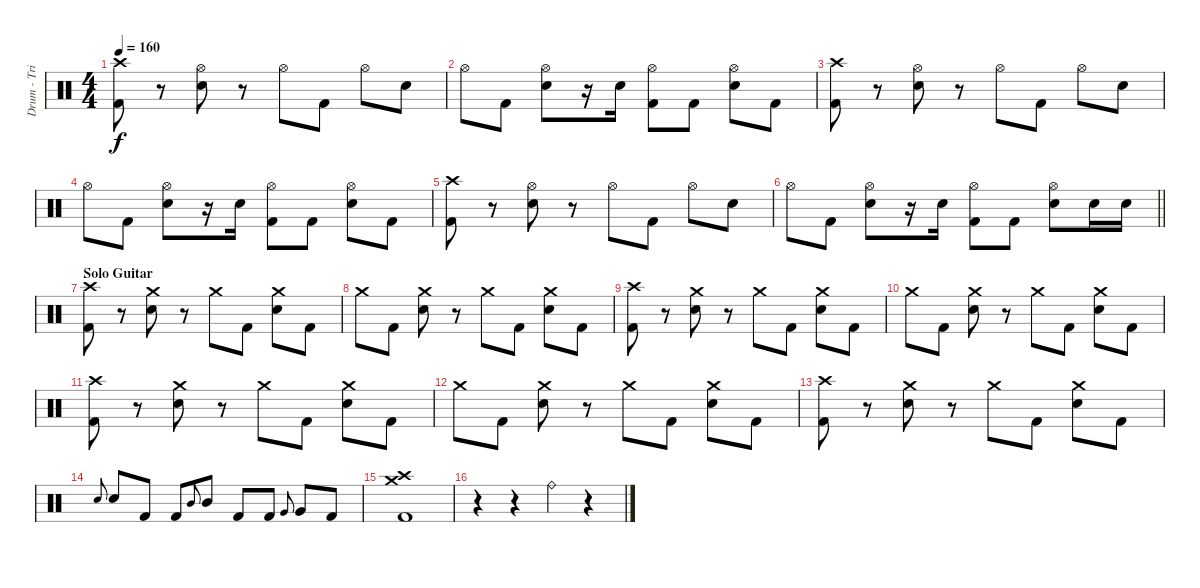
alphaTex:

\track ("Drum - Trian" "Drum - Tri") {instrument percussion}
\staff {score}
\articulation defaults
\ts (4 4)
\tempo 160
\clef neutral
\ks c
("Crash high (hit)" "Kick (hit) 2").8{dy f} r.8 ("Hi-Hat (open)" "Electric Snare (hit)").8 r.8 "Hi-Hat (open)".8 "Kick (hit) 2".8 "Hi-Hat (open)".8 "Electric Snare (hit)".8 |
"Hi-Hat (open)".8 "Kick (hit) 2".8 ("Hi-Hat (open)" "Electric Snare (hit)").8 r.16 "Electric Snare (hit)".16 ("Hi-Hat (open)" "Kick (hit) 2").8 "Kick (hit) 2".8 ("Hi-Hat (open)" "Electric Snare (hit)").8 "Kick (hit) 2".8 |
("Crash high (hit)" "Kick (hit) 2").8 r.8 ("Hi-Hat (open)" "Electric Snare (hit)").8 r.8 "Hi-Hat (open)".8 "Kick (hit) 2".8 "Hi-Hat (open)".8 "Electric Snare (hit)".8 |
"Hi-Hat (open)".8 "Kick (hit) 2".8 ("Hi-Hat (open)" "Electric Snare (hit)").8 r.16 "Electric Snare (hit)".16 ("Hi-Hat (open)" "Kick (hit) 2").8 "Kick (hit) 2".8 ("Hi-Hat (open)" "Electric Snare (hit)").8 "Kick (hit) 2".8 |
("Crash high (hit)" "Kick (hit) 2").8 r.8 ("Hi-Hat (open)" "Electric Snare (hit)").8 r.8 "Hi-Hat (open)".8 "Kick (hit) 2".8 "Hi-Hat (open)".8 "Electric Snare (hit)".8 |
\barLineRight lightlight "Hi-Hat (open)".8 "Kick (hit) 2".8
("Hi-Hat (open)" "Electric Snare (hit)").8 r.16 "Electric Snare (hit)".16 ("Hi-Hat (open)" "Kick (hit) 2").8 "Kick (hit) 2".8 ("Hi-Hat (open)" "Electric Snare (hit)").8 "Electric Snare (hit)".16 "Electric Snare (hit)".16 |
\section ("" "Solo Guitar")
("Crash high (hit)" "Kick (hit) 2").8 r.8 ("Crash medium (hit)" "Electric Snare (hit)").8 r.8 "Crash medium (hit)".8 "Kick (hit) 2".8 ("Crash medium (hit)" "Electric Snare (hit)").8 "Kick (hit) 2".8 |
"Crash medium (hit)".8 "Kick (hit) 2".8 ("Crash medium (hit)" "Electric Snare (hit)").8 r.8 "Crash medium (hit)".8 "Kick (hit) 2".8 ("Crash medium (hit)" "Electric Snare (hit)").8 "Kick (hit) 2".8 |
("Crash high (hit)" "Kick (hit) 2").8 r.8 ("Crash medium (hit)" "Electric Snare (hit)").8 r.8 "Crash medium (hit)".8 "Kick (hit) 2".8 ("Crash medium (hit)" "Electric Snare (hit)").8 "Kick (hit) 2".8 |
"Crash medium (hit)".8 "Kick (hit) 2".8 ("Crash medium (hit)" "Electric Snare (hit)").8 r.8 "Crash medium (hit)".8 "Kick (hit) 2".8 ("Crash medium (hit)" "Electric Snare (hit)").8 "Kick (hit) 2".8 |
("Crash high (hit)" "Kick (hit) 2").8 r.8 ("Crash medium (hit)" "Electric Snare (hit)").8 r.8 "Crash medium (hit)".8 "Kick (hit) 2".8 ("Crash medium (hit)" "Electric Snare (hit)").8 "Kick (hit) 2".8 |
"Crash medium (hit)".8 "Kick (hit) 2".8 ("Crash medium (hit)" "Electric Snare (hit)").8 r.8 "Crash medium (hit)".8 "Kick (hit) 2".8 ("Crash medium (hit)" "Electric Snare (hit)").8 "Kick (hit) 2".8 |
("Crash high (hit)" "Kick (hit) 2").8 r.8 ("Crash medium (hit)" "Electric Snare (hit)").8 r.8 "Crash medium (hit)".8 "Kick (hit) 2".8 ("Crash medium (hit)" "Electric Snare (hit)").8 "Kick (hit) 2".8 |
"Electric Snare (hit)".8{gr onbeat} "Electric Snare (hit)".8 "Kick (hit) 2".8 "Kick (hit) 2".8 "Mid Tom (hit)".8{gr onbeat} "Mid Tom (hit)".8 "Kick (hit) 2".8 "Kick (hit) 2".8 "Very Low Tom (hit)".8{gr onbeat} "Very Low Tom (hit)".8 "Kick (hit) 2".8 |
("Crash high (hit)" "Crash medium (hit)" "Kick (hit) 2").1 |
r.4 r.4 "Ride (bell)".4 r.4
